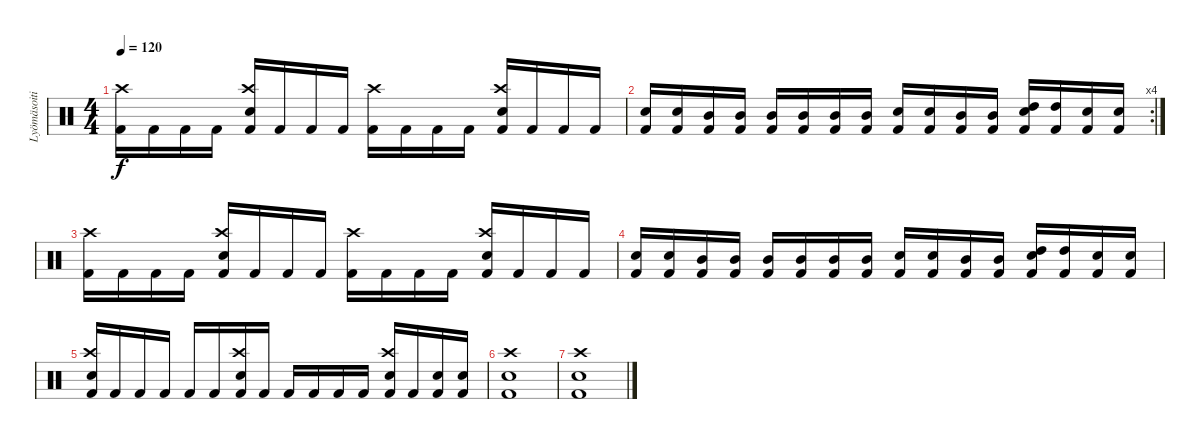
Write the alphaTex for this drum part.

\track ("Lyömäsoitin" "Lyömäsoiti") {instrument percussion}
\staff {score}
\articulation defaults
\ts (4 4)
\tempo 120
\clef neutral
\ks c
("Kick (hit) 2" "Crash high (hit)").16{dy f} "Kick (hit) 2".16 "Kick (hit) 2".16 "Kick (hit) 2".16 ("Kick (hit) 2" "Crash high (hit)" "Electric Snare (hit)").16 "Kick (hit) 2".16 "Kick (hit) 2".16 "Kick (hit) 2".16 ("Kick (hit) 2" "Crash high (hit)").16 "Kick (hit) 2".16 "Kick (hit) 2".16 "Kick (hit) 2".16 ("Kick (hit) 2" "Crash high (hit)" "Electric Snare (hit)").16 "Kick (hit) 2".16 "Kick (hit) 2".16 "Kick (hit) 2".16 |
\rc 4
("Kick (hit) 2" "Electric Snare (hit)").16 ("Kick (hit) 2" "Electric Snare (hit)").16 ("Kick (hit) 2" "Mid Tom (hit)").16 ("Kick (hit) 2" "Mid Tom (hit)").16 ("Kick (hit) 2" "Mid Tom (hit)").16 ("Kick (hit) 2" "Mid Tom (hit)").16 ("Kick (hit) 2" "Mid Tom (hit)").16 ("Kick (hit) 2" "Mid Tom (hit)").16 ("Kick (hit) 2" "Electric Snare (hit)").16 ("Kick (hit) 2" "Electric Snare (hit)").16 ("Kick (hit) 2" "Mid Tom (hit)").16 ("Kick (hit) 2" "Mid Tom (hit)").16 ("Kick (hit) 2" "High Tom (hit)" "Electric Snare (hit)").16 ("Kick (hit) 2" "High Tom (hit)").16 ("Kick (hit) 2" "Electric Snare (hit)").16 ("Kick (hit) 2" "Electric Snare (hit)").16 |
("Kick (hit) 2" "Crash high (hit)").16 "Kick (hit) 2".16 "Kick (hit) 2".16 "Kick (hit) 2".16 ("Kick (hit) 2" "Crash high (hit)" "Electric Snare (hit)").16 "Kick (hit) 2".16 "Kick (hit) 2".16 "Kick (hit) 2".16 ("Kick (hit) 2" "Crash high (hit)").16 "Kick (hit) 2".16 "Kick (hit) 2".16 "Kick (hit) 2".16 ("Kick (hit) 2" "Crash high (hit)" "Electric Snare (hit)").16 "Kick (hit) 2".16 "Kick (hit) 2".16 "Kick (hit) 2".16 |
("Kick (hit) 2" "Electric Snare (hit)").16 ("Kick (hit) 2" "Electric Snare (hit)").16 ("Kick (hit) 2" "Mid Tom (hit)").16 ("Kick (hit) 2" "Mid Tom (hit)").16 ("Kick (hit) 2" "Mid Tom (hit)").16 ("Kick (hit) 2" "Mid Tom (hit)").16 ("Kick (hit) 2" "Mid Tom (hit)").16 ("Kick (hit) 2" "Mid Tom (hit)").16 ("Kick (hit) 2" "Electric Snare (hit)").16 ("Kick (hit) 2" "Electric Snare (hit)").16 ("Kick (hit) 2" "Mid Tom (hit)").16 ("Kick (hit) 2" "Mid Tom (hit)").16 ("Kick (hit) 2" "High Tom (hit)" "Electric Snare (hit)").16 ("Kick (hit) 2" "High Tom (hit)").16 ("Kick (hit) 2" "Electric Snare (hit)").16 ("Kick (hit) 2" "Electric Snare (hit)").16 |
("Kick (hit) 2" "Electric Snare (hit)" "Crash high (hit)").16 "Kick (hit) 2".16 "Kick (hit) 2".16 "Kick (hit) 2".16 "Kick (hit) 2".16 "Kick (hit) 2".16 ("Kick (hit) 2" "Electric Snare (hit)" "Crash high (hit)").16 "Kick (hit) 2".16 "Kick (hit) 2".16 "Kick (hit) 2".16 "Kick (hit) 2".16 "Kick (hit) 2".16 ("Kick (hit) 2" "Electric Snare (hit)" "Crash high (hit)").16 "Kick (hit) 2".16 ("Kick (hit) 2" "Electric Snare (hit)").16 ("Kick (hit) 2" "Electric Snare (hit)").16 |
("Kick (hit) 2" "Electric Snare (hit)" "Crash high (hit)").1 |
("Kick (hit) 2" "Electric Snare (hit)" "Crash high (hit)").1
